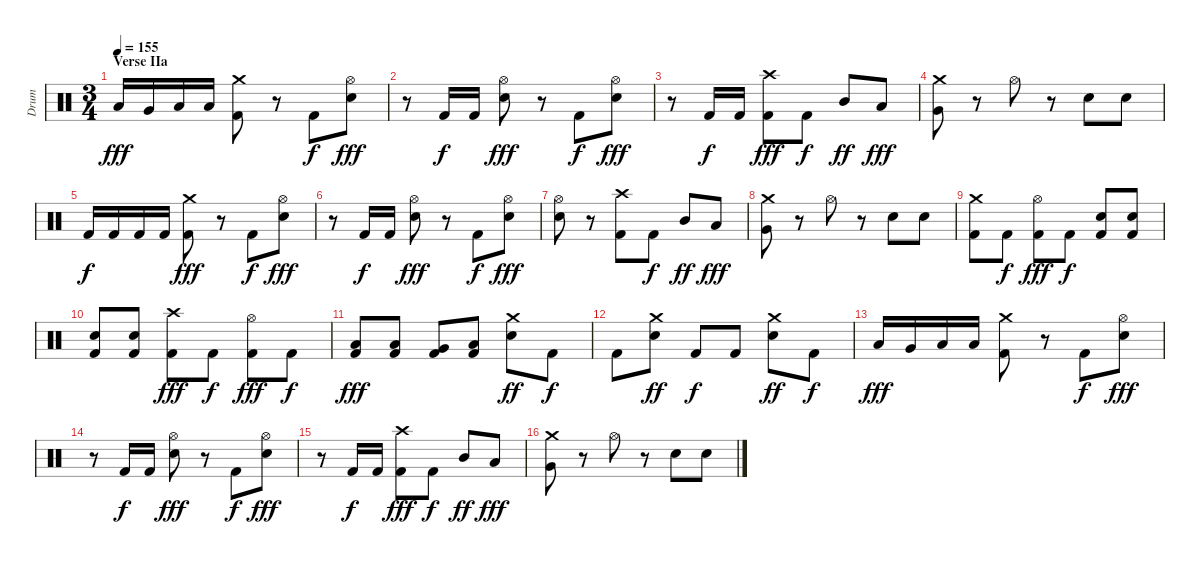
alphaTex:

\track ("Drum" "Drum") {instrument percussion}
\staff {score}
\articulation defaults
\ts (3 4)
\section ("" "Verse IIa")
\tempo 155
\clef neutral
\ks c "Low Tom (hit)".16{dy fff} "Very Low Tom (hit)".16 "Low Floor Tom (hit)".16 "Low Floor Tom (hit)".16
("Crash medium (hit)" "Kick (hit) 2").8 r.8 "Kick (hit) 2".8{dy f} ("Hi-Hat (open)" "Snare (hit) 2").8{dy fff} |
r.8 "Kick (hit) 2".16{dy f} "Kick (hit) 2".16 ("Hi-Hat (open)" "Snare (hit) 2").8{dy fff} r.8 "Kick (hit) 2".8{dy f} ("Hi-Hat (open)" "Snare (hit) 2").8{dy fff} |
r.8 "Kick (hit) 2".16{dy f} "Kick (hit) 2".16 ("Crash high (hit)" "Kick (hit) 2").8{dy fff} "Kick (hit) 2".8{dy f} "Mid Tom (hit)".8{dy ff} "Low Tom (hit)".8{dy fff} |
("Crash medium (hit)" "Very Low Tom (hit)").8 r.8 "Hi-Hat (open)".8 r.8 "Snare (hit) 2".8 "Snare (hit) 2".8 |
"Kick (hit) 2".16{dy f} "Kick (hit) 2".16 "Kick (hit) 2".16 "Kick (hit) 2".16 ("Crash medium (hit)" "Kick (hit) 2").8{dy fff} r.8 "Kick (hit) 2".8{dy f} ("Hi-Hat (open)" "Snare (hit) 2").8{dy fff} |
r.8 "Kick (hit) 2".16{dy f} "Kick (hit) 2".16 ("Hi-Hat (open)" "Snare (hit) 2").8{dy fff} r.8 "Kick (hit) 2".8{dy f} ("Hi-Hat (open)" "Snare (hit) 2").8{dy fff} |
("Hi-Hat (open)" "Snare (hit) 2").8 r.8 ("Crash high (hit)" "Kick (hit) 2").8 "Kick (hit) 2".8{dy f} "Mid Tom (hit)".8{dy ff} "Low Tom (hit)".8{dy fff} |
("Crash medium (hit)" "Very Low Tom (hit)").8 r.8 "Hi-Hat (open)".8 r.8 "Snare (hit) 2".8 "Snare (hit) 2".8 |
("Crash medium (hit)" "Kick (hit) 2").8 "Kick (hit) 2".8{dy f} ("Hi-Hat (open)" "Kick (hit) 2").8{dy fff} "Kick (hit) 2".8{dy f} ("Snare (hit) 2" "Kick (hit) 2").8 ("Snare (hit) 2" "Kick (hit) 2").8 |
("Snare (hit) 2" "Kick (hit) 2").8 ("Snare (hit) 2" "Kick (hit) 2").8 ("Crash high (hit)" "Kick (hit) 2").8{dy fff} "Kick (hit) 2".8{dy f} ("Hi-Hat (open)" "Kick (hit) 2").8{dy fff} "Kick (hit) 2".8{dy f} |
("Low Floor Tom (hit)" "Kick (hit) 2").8{dy fff} ("Low Floor Tom (hit)" "Kick (hit) 2").8 ("Very Low Tom (hit)" "Kick (hit) 2").8 ("Low Tom (hit)" "Kick (hit) 2").8 ("Crash medium (hit)" "Snare (hit) 2").8{dy ff} "Kick (hit) 2".8{dy f} |
"Kick (hit) 2".8 ("Crash medium (hit)" "Snare (hit) 2").8{dy ff} "Kick (hit) 2".8{dy f} "Kick (hit) 2".8 ("Crash medium (hit)" "Snare (hit) 2").8{dy ff} "Kick (hit) 2".8{dy f} |
"Low Tom (hit)".16{dy fff} "Very Low Tom (hit)".16 "Low Floor Tom (hit)".16 "Low Floor Tom (hit)".16 ("Crash medium (hit)" "Kick (hit) 2").8 r.8 "Kick (hit) 2".8{dy f} ("Hi-Hat (open)" "Snare (hit) 2").8{dy fff} |
r.8 "Kick (hit) 2".16{dy f} "Kick (hit) 2".16 ("Hi-Hat (open)" "Snare (hit) 2").8{dy fff} r.8 "Kick (hit) 2".8{dy f} ("Hi-Hat (open)" "Snare (hit) 2").8{dy fff} |
r.8 "Kick (hit) 2".16{dy f} "Kick (hit) 2".16 ("Crash high (hit)" "Kick (hit) 2").8{dy fff} "Kick (hit) 2".8{dy f} "Mid Tom (hit)".8{dy ff} "Low Tom (hit)".8{dy fff} |
("Crash medium (hit)" "Very Low Tom (hit)").8 r.8 "Hi-Hat (open)".8 r.8 "Snare (hit) 2".8 "Snare (hit) 2".8
